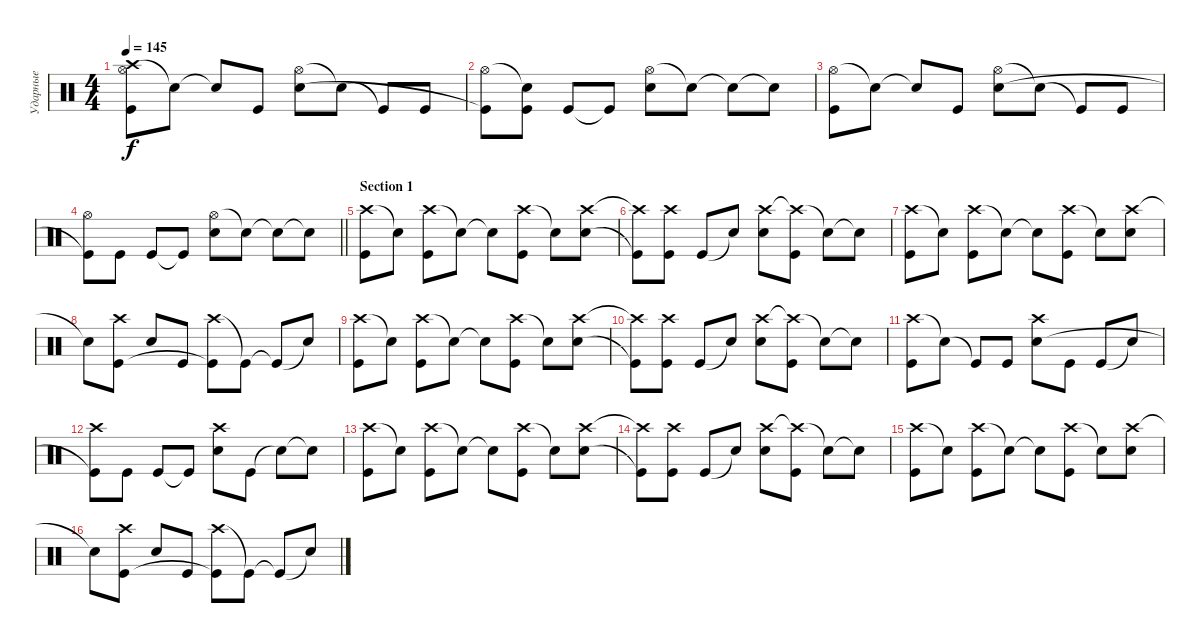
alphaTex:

\track ("Ударные" "Ударные") {instrument percussion}
\staff {score}
\articulation defaults
\ts (4 4)
\tempo 145
\clef neutral
\ks c
("Crash high (hit)" "Hi-Hat (open)" "Kick (hit)").8{dy f} "Snare (hit)"{t}.8 "Snare (hit)"{t}.8 "Kick (hit)".8 ("Hi-Hat (open)" "Snare (hit) 2").8 "Snare (hit)"{t}.8 "Kick (hit)"{t}.8 "Kick (hit)".8 |
("Hi-Hat (open)" "Kick (hit)"{t}).8 ("Snare (hit)"{t} "Kick (hit)").8 "Kick (hit)".8 "Kick (hit)"{t}.8 ("Hi-Hat (open)" "Snare (hit) 2").8 "Snare (hit)"{t}.8 "Snare (hit)"{t}.8 "Snare (hit)"{t}.8 |
("Hi-Hat (open)" "Kick (hit)").8 "Snare (hit)"{t}.8 "Snare (hit)"{t}.8 "Kick (hit)".8 ("Hi-Hat (open)" "Snare (hit) 2").8 "Snare (hit)"{t}.8 "Kick (hit)"{t}.8 "Kick (hit)".8 |
\barLineRight lightlight
("Hi-Hat (open)" "Kick (hit)"{t}).8 "Kick (hit)".8 "Kick (hit)".8 "Kick (hit)"{t}.8 ("Hi-Hat (open)" "Snare (hit) 2").8 "Snare (hit)"{t}.8 "Snare (hit)"{t}.8 "Snare (hit)"{t}.8 |
\section ("" "Section 1")
("Crash high (hit)" "Kick (hit)").8 "Snare (hit)"{t}.8 ("Crash high (hit)" "Kick (hit)").8 "Snare (hit)"{t}.8 "Snare (hit)"{t}.8 ("Crash high (hit)" "Kick (hit)").8 "Snare (hit)"{t}.8 ("Crash high (hit)" "Snare (hit) 2").8 |
("Crash high (hit)"{t} "Kick (hit)"{t}).8 ("Crash high (hit)" "Kick (hit)").8 "Kick (hit)".8 "Snare (hit) 2"{t}.8 ("Crash high (hit)" "Snare (hit) 2").8 ("Crash high (hit)"{t} "Kick (hit)").8 "Snare (hit)"{t}.8 "Snare (hit)"{t}.8 |
("Crash high (hit)" "Kick (hit)").8 "Snare (hit)"{t}.8 ("Crash high (hit)" "Kick (hit)").8 "Snare (hit)"{t}.8 "Snare (hit)"{t}.8 ("Crash high (hit)" "Kick (hit)").8 "Snare (hit)"{t}.8 ("Crash high (hit)" "Snare (hit) 2").8 |
"Snare (hit)"{t}.8 ("Crash high (hit)" "Kick (hit)").8 "Snare (hit) 2".8 "Kick (hit)".8 ("Crash high (hit)" "Kick (hit)"{t}).8 "Kick (hit)"{t}.8 "Kick (hit)"{t}.8 "Snare (hit)"{t}.8 |
("Crash high (hit)" "Kick (hit)").8 "Snare (hit)"{t}.8 ("Crash high (hit)" "Kick (hit)").8 "Snare (hit)"{t}.8 "Snare (hit)"{t}.8 ("Crash high (hit)" "Kick (hit)").8 "Snare (hit)"{t}.8 ("Crash high (hit)" "Snare (hit) 2").8 |
("Crash high (hit)"{t} "Kick (hit)"{t}).8 ("Crash high (hit)" "Kick (hit)").8 "Kick (hit)".8 "Snare (hit) 2"{t}.8 ("Crash high (hit)" "Snare (hit) 2").8 ("Crash high (hit)"{t} "Kick (hit)").8 "Snare (hit)"{t}.8 "Snare (hit)"{t}.8 |
("Crash high (hit)" "Kick (hit)").8 "Snare (hit)"{t}.8 "Kick (hit)"{t}.8 "Kick (hit)".8 ("Crash high (hit)" "Snare (hit) 2").8 "Kick (hit)".8 "Kick (hit)".8 "Snare (hit)"{t}.8 |
("Crash high (hit)" "Kick (hit)"{t}).8 "Kick (hit)".8 "Kick (hit)".8 "Kick (hit)"{t}.8 ("Crash high (hit)" "Snare (hit) 2").8 "Kick (hit)".8 "Snare (hit)"{t}.8 "Snare (hit)"{t}.8 |
("Crash high (hit)" "Kick (hit)").8 "Snare (hit)"{t}.8 ("Crash high (hit)" "Kick (hit)").8 "Snare (hit)"{t}.8 "Snare (hit)"{t}.8 ("Crash high (hit)" "Kick (hit)").8 "Snare (hit)"{t}.8 ("Crash high (hit)" "Snare (hit) 2").8 |
("Crash high (hit)"{t} "Kick (hit)"{t}).8 ("Crash high (hit)" "Kick (hit)").8 "Kick (hit)".8 "Snare (hit) 2"{t}.8 ("Crash high (hit)" "Snare (hit) 2").8 ("Crash high (hit)"{t} "Kick (hit)").8 "Snare (hit)"{t}.8 "Snare (hit)"{t}.8 |
("Crash high (hit)" "Kick (hit)").8 "Snare (hit)"{t}.8 ("Crash high (hit)" "Kick (hit)").8 "Snare (hit)"{t}.8 "Snare (hit)"{t}.8 ("Crash high (hit)" "Kick (hit)").8 "Snare (hit)"{t}.8 ("Crash high (hit)" "Snare (hit) 2").8 |
"Snare (hit)"{t}.8 ("Crash high (hit)" "Kick (hit)").8 "Snare (hit) 2".8 "Kick (hit)".8 ("Crash high (hit)" "Kick (hit)"{t}).8 "Kick (hit)"{t}.8 "Kick (hit)"{t}.8 "Snare (hit)"{t}.8
